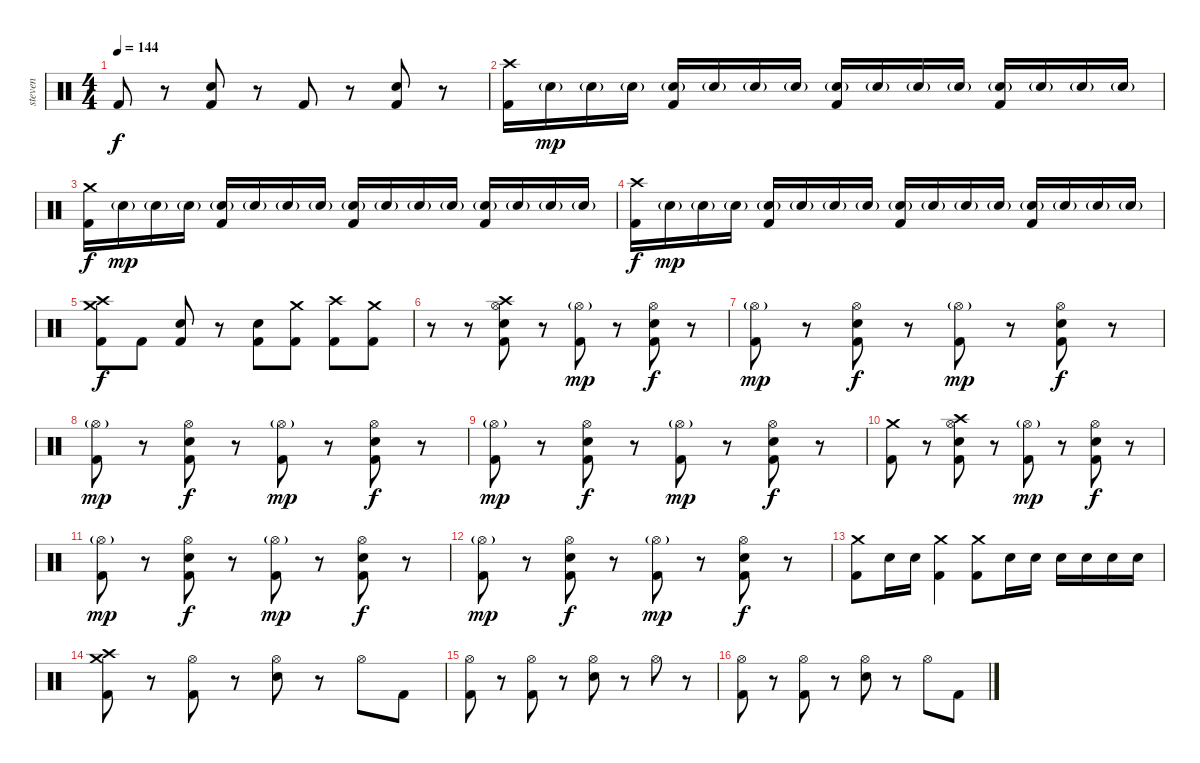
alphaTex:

\track ("steven" "steven") {instrument percussion}
\staff {score}
\articulation defaults
\ts (4 4)
\tempo 144
\clef neutral
\ks c "Kick (hit) 2".8{dy f}
r.8 ("Electric Snare (hit)" "Kick (hit) 2").8 r.8 "Kick (hit) 2".8 r.8 ("Electric Snare (hit)" "Kick (hit) 2").8 r.8 |
("Crash high (hit)" "Kick (hit) 2").16 "Electric Snare (hit)"{g}.16{dy mp} "Electric Snare (hit)"{g}.16 "Electric Snare (hit)"{g}.16 ("Electric Snare (hit)"{g} "Kick (hit) 2").16 "Electric Snare (hit)"{g}.16 "Electric Snare (hit)"{g}.16 "Electric Snare (hit)"{g}.16 ("Electric Snare (hit)"{g} "Kick (hit) 2").16 "Electric Snare (hit)"{g}.16 "Electric Snare (hit)"{g}.16 "Electric Snare (hit)"{g}.16 ("Electric Snare (hit)"{g} "Kick (hit) 2").16 "Electric Snare (hit)"{g}.16 "Electric Snare (hit)"{g}.16 "Electric Snare (hit)"{g}.16 |
("Crash medium (hit)" "Kick (hit) 2").16{dy f} "Electric Snare (hit)"{g}.16{dy mp} "Electric Snare (hit)"{g}.16 "Electric Snare (hit)"{g}.16 ("Electric Snare (hit)"{g} "Kick (hit) 2").16 "Electric Snare (hit)"{g}.16 "Electric Snare (hit)"{g}.16 "Electric Snare (hit)"{g}.16 ("Electric Snare (hit)"{g} "Kick (hit) 2").16 "Electric Snare (hit)"{g}.16 "Electric Snare (hit)"{g}.16 "Electric Snare (hit)"{g}.16 ("Electric Snare (hit)"{g} "Kick (hit) 2").16 "Electric Snare (hit)"{g}.16 "Electric Snare (hit)"{g}.16 "Electric Snare (hit)"{g}.16 |
("Crash high (hit)" "Kick (hit) 2").16{dy f} "Electric Snare (hit)"{g}.16{dy mp} "Electric Snare (hit)"{g}.16 "Electric Snare (hit)"{g}.16 ("Electric Snare (hit)"{g} "Kick (hit) 2").16 "Electric Snare (hit)"{g}.16 "Electric Snare (hit)"{g}.16 "Electric Snare (hit)"{g}.16 ("Electric Snare (hit)"{g} "Kick (hit) 2").16 "Electric Snare (hit)"{g}.16 "Electric Snare (hit)"{g}.16 "Electric Snare (hit)"{g}.16 ("Electric Snare (hit)"{g} "Kick (hit) 2").16 "Electric Snare (hit)"{g}.16 "Electric Snare (hit)"{g}.16 "Electric Snare (hit)"{g}.16 |
("Crash high (hit)" "Crash medium (hit)" "Kick (hit) 2").8{dy f} "Kick (hit) 2".8 ("Electric Snare (hit)" "Kick (hit) 2").8 r.8 ("Electric Snare (hit)" "Kick (hit) 2").8 ("Crash medium (hit)" "Kick (hit) 2").8 ("Crash high (hit)" "Kick (hit) 2").8 ("Crash medium (hit)" "Kick (hit) 2").8 |
r.8 r.8 ("Crash high (hit)" "Hi-Hat (open)" "Electric Snare (hit)" "Kick (hit) 2").8 r.8 ("Hi-Hat (open)"{g} "Kick (hit) 2").8{dy mp} r.8 ("Hi-Hat (open)" "Electric Snare (hit)" "Kick (hit) 2").8{dy f} r.8 |
("Hi-Hat (open)"{g} "Kick (hit) 2").8{dy mp} r.8 ("Hi-Hat (open)" "Electric Snare (hit)" "Kick (hit) 2").8{dy f} r.8 ("Hi-Hat (open)"{g} "Kick (hit) 2").8{dy mp} r.8 ("Hi-Hat (open)" "Electric Snare (hit)" "Kick (hit) 2").8{dy f} r.8 |
("Hi-Hat (open)"{g} "Kick (hit) 2").8{dy mp} r.8 ("Hi-Hat (open)" "Electric Snare (hit)" "Kick (hit) 2").8{dy f} r.8 ("Hi-Hat (open)"{g} "Kick (hit) 2").8{dy mp} r.8 ("Hi-Hat (open)" "Electric Snare (hit)" "Kick (hit) 2").8{dy f} r.8 |
("Hi-Hat (open)"{g} "Kick (hit) 2").8{dy mp} r.8 ("Hi-Hat (open)" "Electric Snare (hit)" "Kick (hit) 2").8{dy f} r.8 ("Hi-Hat (open)"{g} "Kick (hit) 2").8{dy mp} r.8 ("Hi-Hat (open)" "Electric Snare (hit)" "Kick (hit) 2").8{dy f} r.8 |
("Crash medium (hit)" "Kick (hit) 2").8 r.8 ("Crash high (hit)" "Hi-Hat (open)" "Electric Snare (hit)" "Kick (hit) 2").8 r.8 ("Hi-Hat (open)"{g} "Kick (hit) 2").8{dy mp} r.8 ("Hi-Hat (open)" "Electric Snare (hit)" "Kick (hit) 2").8{dy f} r.8 |
("Hi-Hat (open)"{g} "Kick (hit) 2").8{dy mp} r.8 ("Hi-Hat (open)" "Electric Snare (hit)" "Kick (hit) 2").8{dy f} r.8 ("Hi-Hat (open)"{g} "Kick (hit) 2").8{dy mp} r.8 ("Hi-Hat (open)" "Electric Snare (hit)" "Kick (hit) 2").8{dy f} r.8 |
("Hi-Hat (open)"{g} "Kick (hit) 2").8{dy mp} r.8 ("Hi-Hat (open)" "Electric Snare (hit)" "Kick (hit) 2").8{dy f} r.8 ("Hi-Hat (open)"{g} "Kick (hit) 2").8{dy mp} r.8 ("Hi-Hat (open)" "Electric Snare (hit)" "Kick (hit) 2").8{dy f} r.8 |
("Crash medium (hit)" "Kick (hit) 2").8 "Electric Snare (hit)".16 "Electric Snare (hit)".16 ("Crash medium (hit)" "Kick (hit) 2").4 ("Crash medium (hit)" "Kick (hit) 2").8 "Electric Snare (hit)".16 "Electric Snare (hit)".16 "Electric Snare (hit)".16 "Electric Snare (hit)".16 "Electric Snare (hit)".16 "Electric Snare (hit)".16 |
("Crash medium (hit)" "Crash high (hit)" "Kick (hit) 2").8 r.8 ("Hi-Hat (open)" "Kick (hit) 2").8 r.8 ("Hi-Hat (open)" "Electric Snare (hit)").8 r.8 "Hi-Hat (open)".8 "Kick (hit) 2".8 |
("Hi-Hat (open)" "Kick (hit) 2").8 r.8 ("Hi-Hat (open)" "Kick (hit) 2").8 r.8 ("Hi-Hat (open)" "Electric Snare (hit)").8 r.8 "Hi-Hat (open)".8 r.8 |
("Hi-Hat (open)" "Kick (hit) 2").8 r.8 ("Hi-Hat (open)" "Kick (hit) 2").8 r.8 ("Hi-Hat (open)" "Electric Snare (hit)").8 r.8 "Hi-Hat (open)".8 "Kick (hit) 2".8
